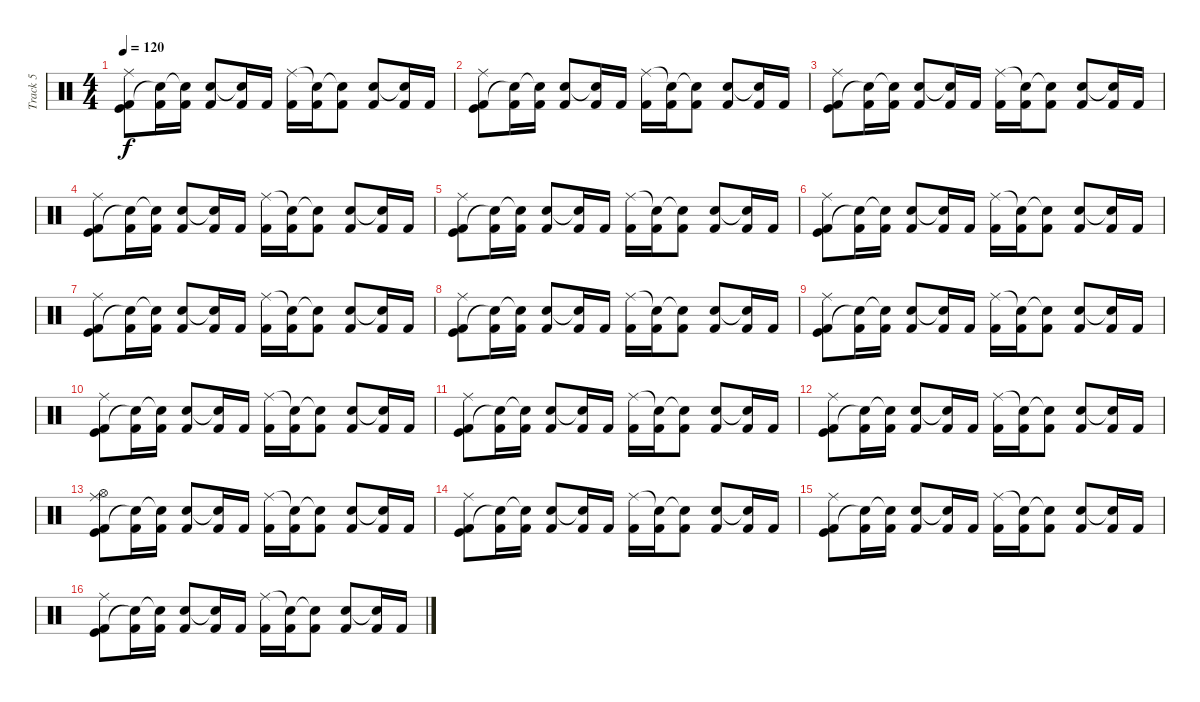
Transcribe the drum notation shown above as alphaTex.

\track ("Track 5" "Track 5") {instrument percussion}
\staff {score}
\articulation defaults
\ts (4 4)
\tempo 120
\clef neutral
\ks c
("Kick (hit)" "Kick (hit) 2" "Ride (middle)").8{dy f} ("Kick (hit) 2" "Snare (hit)"{t}).16 ("Kick (hit) 2" "Snare (hit)"{t}).16 ("Kick (hit) 2" "Snare (hit) 2").8 ("Kick (hit) 2" "Snare (hit)"{t}).16 "Kick (hit) 2".16 ("Kick (hit) 2" "Ride (middle)").16 ("Kick (hit) 2" "Snare (hit)"{t}).16 ("Kick (hit) 2" "Snare (hit)"{t}).8 ("Kick (hit) 2" "Snare (hit) 2").8 ("Kick (hit) 2" "Snare (hit)"{t}).16 "Kick (hit) 2".16 |
("Kick (hit)" "Kick (hit) 2" "Ride (middle)").8 ("Kick (hit) 2" "Snare (hit)"{t}).16 ("Kick (hit) 2" "Snare (hit)"{t}).16 ("Kick (hit) 2" "Snare (hit) 2").8 ("Kick (hit) 2" "Snare (hit)"{t}).16 "Kick (hit) 2".16 ("Kick (hit) 2" "Ride (middle)").16 ("Kick (hit) 2" "Snare (hit)"{t}).16 ("Kick (hit) 2" "Snare (hit)"{t}).8 ("Kick (hit) 2" "Snare (hit) 2").8 ("Kick (hit) 2" "Snare (hit)"{t}).16 "Kick (hit) 2".16 |
("Kick (hit)" "Kick (hit) 2" "Ride (middle)").8 ("Kick (hit) 2" "Snare (hit)"{t}).16 ("Kick (hit) 2" "Snare (hit)"{t}).16 ("Kick (hit) 2" "Snare (hit) 2").8 ("Kick (hit) 2" "Snare (hit)"{t}).16 "Kick (hit) 2".16 ("Kick (hit) 2" "Ride (middle)").16 ("Kick (hit) 2" "Snare (hit)"{t}).16 ("Kick (hit) 2" "Snare (hit)"{t}).8 ("Kick (hit) 2" "Snare (hit) 2").8 ("Kick (hit) 2" "Snare (hit)"{t}).16 "Kick (hit) 2".16 |
("Kick (hit)" "Kick (hit) 2" "Ride (middle)").8 ("Kick (hit) 2" "Snare (hit)"{t}).16 ("Kick (hit) 2" "Snare (hit)"{t}).16 ("Kick (hit) 2" "Snare (hit) 2").8 ("Kick (hit) 2" "Snare (hit)"{t}).16 "Kick (hit) 2".16 ("Kick (hit) 2" "Ride (middle)").16 ("Kick (hit) 2" "Snare (hit)"{t}).16 ("Kick (hit) 2" "Snare (hit)"{t}).8 ("Kick (hit) 2" "Snare (hit) 2").8 ("Kick (hit) 2" "Snare (hit)"{t}).16 "Kick (hit) 2".16 |
("Kick (hit)" "Kick (hit) 2" "Ride (middle)").8 ("Kick (hit) 2" "Snare (hit)"{t}).16 ("Kick (hit) 2" "Snare (hit)"{t}).16 ("Kick (hit) 2" "Snare (hit) 2").8 ("Kick (hit) 2" "Snare (hit)"{t}).16 "Kick (hit) 2".16 ("Kick (hit) 2" "Ride (middle)").16 ("Kick (hit) 2" "Snare (hit)"{t}).16 ("Kick (hit) 2" "Snare (hit)"{t}).8 ("Kick (hit) 2" "Snare (hit) 2").8 ("Kick (hit) 2" "Snare (hit)"{t}).16 "Kick (hit) 2".16 |
("Kick (hit)" "Kick (hit) 2" "Ride (middle)").8 ("Kick (hit) 2" "Snare (hit)"{t}).16 ("Kick (hit) 2" "Snare (hit)"{t}).16 ("Kick (hit) 2" "Snare (hit) 2").8 ("Kick (hit) 2" "Snare (hit)"{t}).16 "Kick (hit) 2".16 ("Kick (hit) 2" "Ride (middle)").16 ("Kick (hit) 2" "Snare (hit)"{t}).16 ("Kick (hit) 2" "Snare (hit)"{t}).8 ("Kick (hit) 2" "Snare (hit) 2").8 ("Kick (hit) 2" "Snare (hit)"{t}).16 "Kick (hit) 2".16 |
("Kick (hit)" "Kick (hit) 2" "Ride (middle)").8 ("Kick (hit) 2" "Snare (hit)"{t}).16 ("Kick (hit) 2" "Snare (hit)"{t}).16 ("Kick (hit) 2" "Snare (hit) 2").8 ("Kick (hit) 2" "Snare (hit)"{t}).16 "Kick (hit) 2".16 ("Kick (hit) 2" "Ride (middle)").16 ("Kick (hit) 2" "Snare (hit)"{t}).16 ("Kick (hit) 2" "Snare (hit)"{t}).8 ("Kick (hit) 2" "Snare (hit) 2").8 ("Kick (hit) 2" "Snare (hit)"{t}).16 "Kick (hit) 2".16 |
("Kick (hit)" "Kick (hit) 2" "Ride (middle)").8 ("Kick (hit) 2" "Snare (hit)"{t}).16 ("Kick (hit) 2" "Snare (hit)"{t}).16 ("Kick (hit) 2" "Snare (hit) 2").8 ("Kick (hit) 2" "Snare (hit)"{t}).16 "Kick (hit) 2".16 ("Kick (hit) 2" "Ride (middle)").16 ("Kick (hit) 2" "Snare (hit)"{t}).16 ("Kick (hit) 2" "Snare (hit)"{t}).8 ("Kick (hit) 2" "Snare (hit) 2").8 ("Kick (hit) 2" "Snare (hit)"{t}).16 "Kick (hit) 2".16 |
("Kick (hit)" "Kick (hit) 2" "Ride (middle)").8 ("Kick (hit) 2" "Snare (hit)"{t}).16 ("Kick (hit) 2" "Snare (hit)"{t}).16 ("Kick (hit) 2" "Snare (hit) 2").8 ("Kick (hit) 2" "Snare (hit)"{t}).16 "Kick (hit) 2".16 ("Kick (hit) 2" "Ride (middle)").16 ("Kick (hit) 2" "Snare (hit)"{t}).16 ("Kick (hit) 2" "Snare (hit)"{t}).8 ("Kick (hit) 2" "Snare (hit) 2").8 ("Kick (hit) 2" "Snare (hit)"{t}).16 "Kick (hit) 2".16 |
("Kick (hit)" "Kick (hit) 2" "Ride (middle)").8 ("Kick (hit) 2" "Snare (hit)"{t}).16 ("Kick (hit) 2" "Snare (hit)"{t}).16 ("Kick (hit) 2" "Snare (hit) 2").8 ("Kick (hit) 2" "Snare (hit)"{t}).16 "Kick (hit) 2".16 ("Kick (hit) 2" "Ride (middle)").16 ("Kick (hit) 2" "Snare (hit)"{t}).16 ("Kick (hit) 2" "Snare (hit)"{t}).8 ("Kick (hit) 2" "Snare (hit) 2").8 ("Kick (hit) 2" "Snare (hit)"{t}).16 "Kick (hit) 2".16 |
("Kick (hit)" "Kick (hit) 2" "Ride (middle)").8 ("Kick (hit) 2" "Snare (hit)"{t}).16 ("Kick (hit) 2" "Snare (hit)"{t}).16 ("Kick (hit) 2" "Snare (hit) 2").8 ("Kick (hit) 2" "Snare (hit)"{t}).16 "Kick (hit) 2".16 ("Kick (hit) 2" "Ride (middle)").16 ("Kick (hit) 2" "Snare (hit)"{t}).16 ("Kick (hit) 2" "Snare (hit)"{t}).8 ("Kick (hit) 2" "Snare (hit) 2").8 ("Kick (hit) 2" "Snare (hit)"{t}).16 "Kick (hit) 2".16 |
("Kick (hit)" "Kick (hit) 2" "Ride (middle)").8 ("Kick (hit) 2" "Snare (hit)"{t}).16 ("Kick (hit) 2" "Snare (hit)"{t}).16 ("Kick (hit) 2" "Snare (hit) 2").8 ("Kick (hit) 2" "Snare (hit)"{t}).16 "Kick (hit) 2".16 ("Kick (hit) 2" "Ride (middle)").16 ("Kick (hit) 2" "Snare (hit)"{t}).16 ("Kick (hit) 2" "Snare (hit)"{t}).8 ("Kick (hit) 2" "Snare (hit) 2").8 ("Kick (hit) 2" "Snare (hit)"{t}).16 "Kick (hit) 2".16 |
("Kick (hit)" "Kick (hit) 2" "Ride (middle)" "Hi-Hat (open)").8 ("Kick (hit) 2" "Snare (hit)"{t}).16 ("Kick (hit) 2" "Snare (hit)"{t}).16 ("Kick (hit) 2" "Snare (hit) 2").8 ("Kick (hit) 2" "Snare (hit)"{t}).16 "Kick (hit) 2".16 ("Kick (hit) 2" "Ride (middle)").16 ("Kick (hit) 2" "Snare (hit)"{t}).16 ("Kick (hit) 2" "Snare (hit)"{t}).8 ("Kick (hit) 2" "Snare (hit) 2").8 ("Kick (hit) 2" "Snare (hit)"{t}).16 "Kick (hit) 2".16 |
("Kick (hit)" "Kick (hit) 2" "Ride (middle)").8 ("Kick (hit) 2" "Snare (hit)"{t}).16 ("Kick (hit) 2" "Snare (hit)"{t}).16 ("Kick (hit) 2" "Snare (hit) 2").8 ("Kick (hit) 2" "Snare (hit)"{t}).16 "Kick (hit) 2".16 ("Kick (hit) 2" "Ride (middle)").16 ("Kick (hit) 2" "Snare (hit)"{t}).16 ("Kick (hit) 2" "Snare (hit)"{t}).8 ("Kick (hit) 2" "Snare (hit) 2").8 ("Kick (hit) 2" "Snare (hit)"{t}).16 "Kick (hit) 2".16 |
("Kick (hit)" "Kick (hit) 2" "Ride (middle)").8 ("Kick (hit) 2" "Snare (hit)"{t}).16 ("Kick (hit) 2" "Snare (hit)"{t}).16 ("Kick (hit) 2" "Snare (hit) 2").8 ("Kick (hit) 2" "Snare (hit)"{t}).16 "Kick (hit) 2".16 ("Kick (hit) 2" "Ride (middle)").16 ("Kick (hit) 2" "Snare (hit)"{t}).16 ("Kick (hit) 2" "Snare (hit)"{t}).8 ("Kick (hit) 2" "Snare (hit) 2").8 ("Kick (hit) 2" "Snare (hit)"{t}).16 "Kick (hit) 2".16 |
("Kick (hit)" "Kick (hit) 2" "Ride (middle)").8 ("Kick (hit) 2" "Snare (hit)"{t}).16 ("Kick (hit) 2" "Snare (hit)"{t}).16 ("Kick (hit) 2" "Snare (hit) 2").8 ("Kick (hit) 2" "Snare (hit)"{t}).16 "Kick (hit) 2".16 ("Kick (hit) 2" "Ride (middle)").16 ("Kick (hit) 2" "Snare (hit)"{t}).16 ("Kick (hit) 2" "Snare (hit)"{t}).8 ("Kick (hit) 2" "Snare (hit) 2").8 ("Kick (hit) 2" "Snare (hit)"{t}).16 "Kick (hit) 2".16
